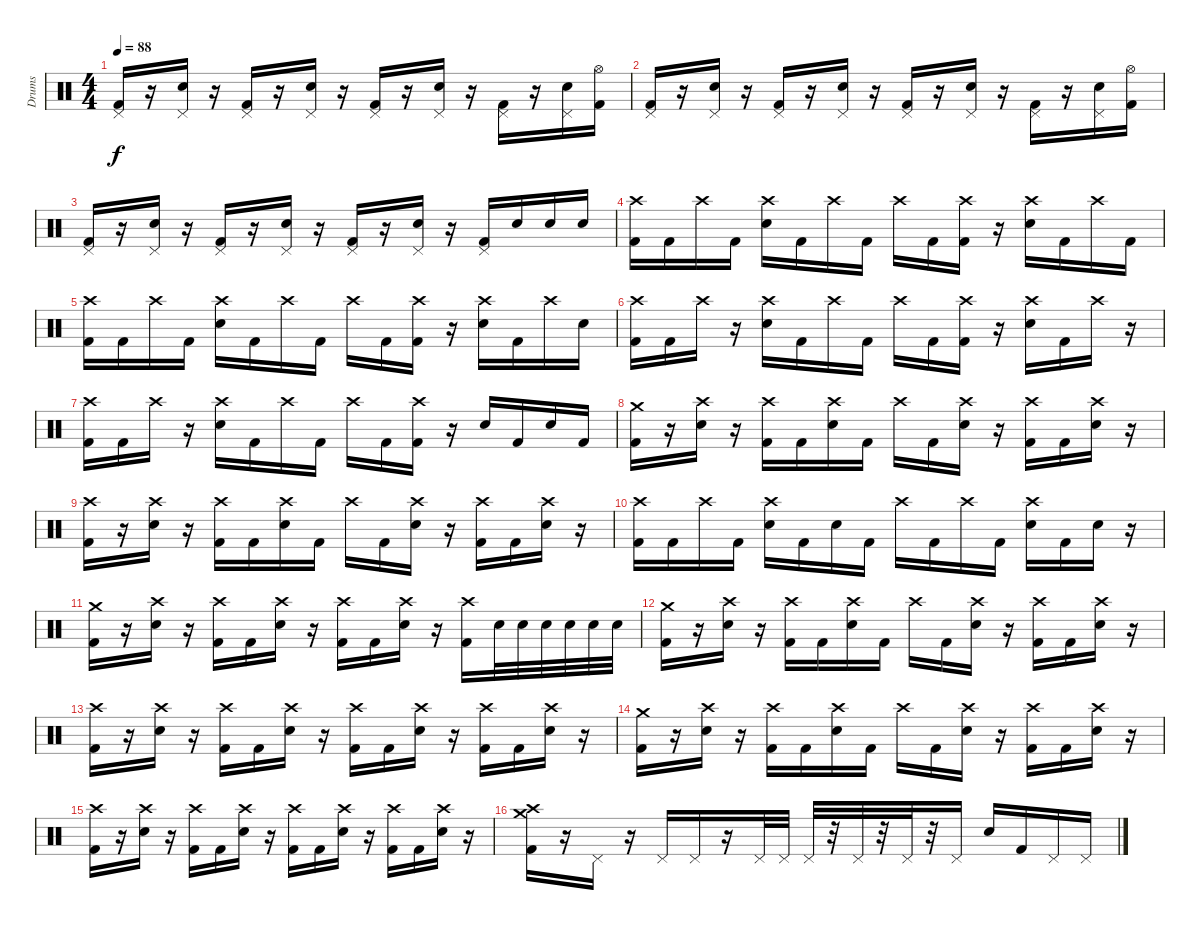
\track ("Drums" "Drums") {instrument percussion}
\staff {score}
\articulation defaults
\ts (4 4)
\tempo 88
\clef neutral
\ks c
("Pedal Hi-Hat (hit)" "Kick (hit) 2").16{dy f} r.16 ("Pedal Hi-Hat (hit)" "Electric Snare (hit)").16 r.16 ("Pedal Hi-Hat (hit)" "Kick (hit) 2").16 r.16 ("Pedal Hi-Hat (hit)" "Electric Snare (hit)").16 r.16 ("Pedal Hi-Hat (hit)" "Kick (hit) 2").16 r.16 ("Pedal Hi-Hat (hit)" "Electric Snare (hit)").16 r.16 ("Pedal Hi-Hat (hit)" "Kick (hit) 2").16 r.16 ("Pedal Hi-Hat (hit)" "Electric Snare (hit)").16 ("Hi-Hat (open)" "Kick (hit) 2").16 |
("Pedal Hi-Hat (hit)" "Kick (hit) 2").16 r.16 ("Pedal Hi-Hat (hit)" "Electric Snare (hit)").16 r.16 ("Pedal Hi-Hat (hit)" "Kick (hit) 2").16 r.16 ("Pedal Hi-Hat (hit)" "Electric Snare (hit)").16 r.16 ("Pedal Hi-Hat (hit)" "Kick (hit) 2").16 r.16 ("Pedal Hi-Hat (hit)" "Electric Snare (hit)").16 r.16 ("Pedal Hi-Hat (hit)" "Kick (hit) 2").16 r.16 ("Pedal Hi-Hat (hit)" "Electric Snare (hit)").16 ("Hi-Hat (open)" "Kick (hit) 2").16 |
("Pedal Hi-Hat (hit)" "Kick (hit) 2").16 r.16 ("Pedal Hi-Hat (hit)" "Electric Snare (hit)").16 r.16 ("Pedal Hi-Hat (hit)" "Kick (hit) 2").16 r.16 ("Pedal Hi-Hat (hit)" "Electric Snare (hit)").16 r.16 ("Pedal Hi-Hat (hit)" "Kick (hit) 2").16 r.16 ("Pedal Hi-Hat (hit)" "Electric Snare (hit)").16 r.16 ("Pedal Hi-Hat (hit)" "Kick (hit) 2").16 "Electric Snare (hit)".16 "Electric Snare (hit)".16 "Electric Snare (hit)".16 |
("Crash high (hit)" "Kick (hit) 2").16 "Kick (hit) 2".16 "Crash high (hit)".16 "Kick (hit) 2".16 ("Crash high (hit)" "Electric Snare (hit)").16 "Kick (hit) 2".16 "Crash high (hit)".16 "Kick (hit) 2".16 "Crash high (hit)".16 "Kick (hit) 2".16 ("Crash high (hit)" "Kick (hit) 2").16 r.16 ("Crash high (hit)" "Electric Snare (hit)").16 "Kick (hit) 2".16 "Crash high (hit)".16 "Kick (hit) 2".16 |
("Crash high (hit)" "Kick (hit) 2").16 "Kick (hit) 2".16 "Crash high (hit)".16 "Kick (hit) 2".16 ("Crash high (hit)" "Electric Snare (hit)").16 "Kick (hit) 2".16 "Crash high (hit)".16 "Kick (hit) 2".16 "Crash high (hit)".16 "Kick (hit) 2".16 ("Crash high (hit)" "Kick (hit) 2").16 r.16 ("Crash high (hit)" "Electric Snare (hit)").16 "Kick (hit) 2".16 "Crash high (hit)".16 "Electric Snare (hit)".16 |
("Crash high (hit)" "Kick (hit) 2").16 "Kick (hit) 2".16 "Crash high (hit)".16 r.16 ("Crash high (hit)" "Electric Snare (hit)").16 "Kick (hit) 2".16 "Crash high (hit)".16 "Kick (hit) 2".16 "Crash high (hit)".16 "Kick (hit) 2".16 ("Crash high (hit)" "Kick (hit) 2").16 r.16 ("Crash high (hit)" "Electric Snare (hit)").16 "Kick (hit) 2".16 "Crash high (hit)".16 r.16 |
("Crash high (hit)" "Kick (hit) 2").16 "Kick (hit) 2".16 "Crash high (hit)".16 r.16 ("Crash high (hit)" "Electric Snare (hit)").16 "Kick (hit) 2".16 "Crash high (hit)".16 "Kick (hit) 2".16 "Crash high (hit)".16 "Kick (hit) 2".16 ("Crash high (hit)" "Kick (hit) 2").16 r.16 "Electric Snare (hit)".16 "Kick (hit) 2".16 "Electric Snare (hit)".16 "Kick (hit) 2".16 |
("Crash medium (hit)" "Kick (hit) 2").16 r.16 ("Crash high (hit)" "Electric Snare (hit)").16 r.16 ("Crash high (hit)" "Kick (hit) 2").16 "Kick (hit) 2".16 ("Crash high (hit)" "Electric Snare (hit)").16 "Kick (hit) 2".16 "Crash high (hit)".16 "Kick (hit) 2".16 ("Crash high (hit)" "Electric Snare (hit)").16 r.16 ("Crash high (hit)" "Kick (hit) 2").16 "Kick (hit) 2".16 ("Crash high (hit)" "Electric Snare (hit)").16 r.16 |
("Crash high (hit)" "Kick (hit) 2").16 r.16 ("Crash high (hit)" "Electric Snare (hit)").16 r.16 ("Crash high (hit)" "Kick (hit) 2").16 "Kick (hit) 2".16 ("Crash high (hit)" "Electric Snare (hit)").16 "Kick (hit) 2".16 "Crash high (hit)".16 "Kick (hit) 2".16 ("Crash high (hit)" "Electric Snare (hit)").16 r.16 ("Crash high (hit)" "Kick (hit) 2").16 "Kick (hit) 2".16 ("Crash high (hit)" "Electric Snare (hit)").16 r.16 |
("Crash high (hit)" "Kick (hit) 2").16 "Kick (hit) 2".16 "Crash high (hit)".16 "Kick (hit) 2".16 ("Crash high (hit)" "Electric Snare (hit)").16 "Kick (hit) 2".16 "Electric Snare (hit)".16 "Kick (hit) 2".16 "Crash high (hit)".16 "Kick (hit) 2".16 "Crash high (hit)".16 "Kick (hit) 2".16 ("Crash high (hit)" "Electric Snare (hit)").16 "Kick (hit) 2".16 "Electric Snare (hit)".16 r.16 |
("Crash medium (hit)" "Kick (hit) 2").16 r.16 ("Crash high (hit)" "Electric Snare (hit)").16 r.16 ("Crash high (hit)" "Kick (hit) 2").16 "Kick (hit) 2".16 ("Crash high (hit)" "Electric Snare (hit)").16 r.16 ("Crash high (hit)" "Kick (hit) 2").16 "Kick (hit) 2".16 ("Crash high (hit)" "Electric Snare (hit)").16 r.16 ("Crash high (hit)" "Kick (hit) 2").16 "Electric Snare (hit)".32 "Electric Snare (hit)".32 "Electric Snare (hit)".32 "Electric Snare (hit)".32 "Electric Snare (hit)".32 "Electric Snare (hit)".32 |
("Crash medium (hit)" "Kick (hit) 2").16 r.16 ("Crash high (hit)" "Electric Snare (hit)").16 r.16 ("Crash high (hit)" "Kick (hit) 2").16 "Kick (hit) 2".16 ("Crash high (hit)" "Electric Snare (hit)").16 "Kick (hit) 2".16 "Crash high (hit)".16 "Kick (hit) 2".16 ("Crash high (hit)" "Electric Snare (hit)").16 r.16 ("Crash high (hit)" "Kick (hit) 2").16 "Kick (hit) 2".16 ("Crash high (hit)" "Electric Snare (hit)").16 r.16 |
("Crash high (hit)" "Kick (hit) 2").16 r.16 ("Crash high (hit)" "Electric Snare (hit)").16 r.16 ("Crash high (hit)" "Kick (hit) 2").16 "Kick (hit) 2".16 ("Crash high (hit)" "Electric Snare (hit)").16 r.16 ("Crash high (hit)" "Kick (hit) 2").16 "Kick (hit) 2".16 ("Crash high (hit)" "Electric Snare (hit)").16 r.16 ("Crash high (hit)" "Kick (hit) 2").16 "Kick (hit) 2".16 ("Crash high (hit)" "Electric Snare (hit)").16 r.16 |
("Crash medium (hit)" "Kick (hit) 2").16 r.16 ("Crash high (hit)" "Electric Snare (hit)").16 r.16 ("Crash high (hit)" "Kick (hit) 2").16 "Kick (hit) 2".16 ("Crash high (hit)" "Electric Snare (hit)").16 "Kick (hit) 2".16 "Crash high (hit)".16 "Kick (hit) 2".16 ("Crash high (hit)" "Electric Snare (hit)").16 r.16 ("Crash high (hit)" "Kick (hit) 2").16 "Kick (hit) 2".16 ("Crash high (hit)" "Electric Snare (hit)").16 r.16 |
("Crash high (hit)" "Kick (hit) 2").16 r.16 ("Crash high (hit)" "Electric Snare (hit)").16 r.16 ("Crash high (hit)" "Kick (hit) 2").16 "Kick (hit) 2".16 ("Crash high (hit)" "Electric Snare (hit)").16 r.16 ("Crash high (hit)" "Kick (hit) 2").16 "Kick (hit) 2".16 ("Crash high (hit)" "Electric Snare (hit)").16 r.16 ("Crash high (hit)" "Kick (hit) 2").16 "Kick (hit) 2".16 ("Crash high (hit)" "Electric Snare (hit)").16 r.16 |
("Crash medium (hit)" "Crash high (hit)" "Kick (hit) 2").16 r.16 "Pedal Hi-Hat (hit)".16 r.16 "Pedal Hi-Hat (hit)".16 "Pedal Hi-Hat (hit)".16 r.16 "Pedal Hi-Hat (hit)".32 "Pedal Hi-Hat (hit)".32 "Pedal Hi-Hat (hit)".32 r.32 "Pedal Hi-Hat (hit)".32 r.32 "Pedal Hi-Hat (hit)".32 r.32 "Pedal Hi-Hat (hit)".16 "Electric Snare (hit)".16 "Kick (hit) 2".16 "Pedal Hi-Hat (hit)".16 "Pedal Hi-Hat (hit)".16
